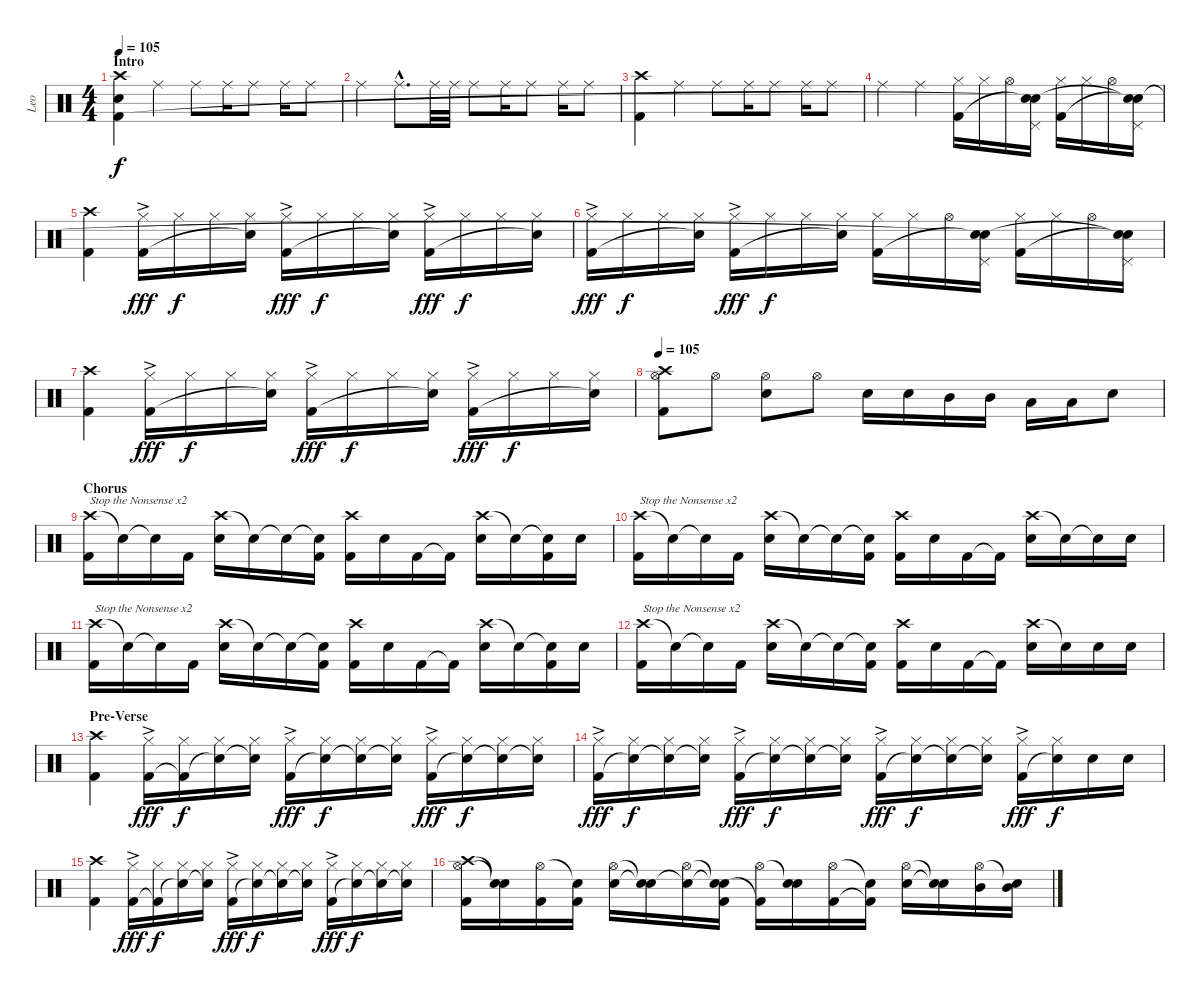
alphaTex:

\track ("Leo" "Leo") {instrument percussion}
\staff {score}
\articulation defaults
\ts (4 4)
\section ("" "Intro")
\tempo 105
\tempo 100
\tempo 105
\clef neutral
\ks c
("Crash high (hit)" "Snare (hit)" "Kick (hit) 2").4{dy f} "Ride (middle)".4 "Ride (middle)".8 "Ride (middle)".16 "Ride (middle)".8 "Ride (middle)".16 "Ride (middle)".8 |
"Ride (middle)".4 "Ride (middle)"{hac}.8{d} "Ride (middle)".32 "Ride (middle)".32 "Ride (middle)".8 "Ride (middle)".16 "Ride (middle)".8 "Ride (middle)".16 "Ride (middle)".8 |
("Crash high (hit)" "Kick (hit) 2").4 "Ride (middle)".4 "Ride (middle)".8 "Ride (middle)".16 "Ride (middle)".8 "Ride (middle)".16 "Ride (middle)".8 |
"Ride (middle)".4 "Ride (middle)".4 ("Hi-Hat (closed)" "Kick (hit) 2").16 "Hi-Hat (closed)".16 "Hi-Hat (open)".16 ("Pedal Hi-Hat (hit)" "Snare (hit)"{t} "Snare (hit)"{t}).16 ("Hi-Hat (closed)" "Kick (hit) 2").16 "Hi-Hat (closed)".16 "Hi-Hat (open)".16 ("Pedal Hi-Hat (hit)" "Snare (hit)"{t} "Snare (hit)"{t}).16 |
("Crash high (hit)" "Kick (hit) 2").4 ("Hi-Hat (closed)"{ac} "Kick (hit) 2").16{dy fff} "Hi-Hat (closed)".16{dy f} "Hi-Hat (closed)".16 ("Hi-Hat (closed)" "Snare (hit)"{t}).16 ("Hi-Hat (closed)"{ac} "Kick (hit) 2").16{dy fff} "Hi-Hat (closed)".16{dy f} "Hi-Hat (closed)".16 ("Hi-Hat (closed)" "Snare (hit)"{t}).16 ("Hi-Hat (closed)"{ac} "Kick (hit) 2").16{dy fff} "Hi-Hat (closed)".16{dy f} "Hi-Hat (closed)".16 ("Hi-Hat (closed)" "Snare (hit)"{t}).16 |
("Hi-Hat (closed)"{ac} "Kick (hit) 2").16{dy fff} "Hi-Hat (closed)".16{dy f} "Hi-Hat (closed)".16 ("Hi-Hat (closed)" "Snare (hit)"{t}).16 ("Hi-Hat (closed)"{ac} "Kick (hit) 2").16{dy fff} "Hi-Hat (closed)".16{dy f} "Hi-Hat (closed)".16 ("Hi-Hat (closed)" "Snare (hit)"{t}).16 ("Hi-Hat (closed)" "Kick (hit) 2").16 "Hi-Hat (closed)".16 "Hi-Hat (open)".16 ("Pedal Hi-Hat (hit)" "Snare (hit)"{t} "Snare (hit)"{t}).16 ("Hi-Hat (closed)" "Kick (hit) 2").16 "Hi-Hat (closed)".16 "Hi-Hat (open)".16 ("Pedal Hi-Hat (hit)" "Snare (hit)"{t} "Snare (hit)"{t}).16 |
("Crash high (hit)" "Kick (hit) 2").4 ("Hi-Hat (closed)"{ac} "Kick (hit) 2").16{dy fff} "Hi-Hat (closed)".16{dy f} "Hi-Hat (closed)".16 ("Hi-Hat (closed)" "Snare (hit)"{t}).16 ("Hi-Hat (closed)"{ac} "Kick (hit) 2").16{dy fff} "Hi-Hat (closed)".16{dy f} "Hi-Hat (closed)".16 ("Hi-Hat (closed)" "Snare (hit)"{t}).16 ("Hi-Hat (closed)"{ac} "Kick (hit) 2").16{dy fff} "Hi-Hat (closed)".16{dy f} "Hi-Hat (closed)".16 ("Hi-Hat (closed)" "Snare (hit)"{t}).16 |
\tempo 105
("Hi-Hat (open)" "Crash high (hit)" "Kick (hit) 2").8 "Hi-Hat (open)".8 ("Hi-Hat (open)" "Snare (hit) 2").8 "Hi-Hat (open)".8 "Snare (hit) 2".16 "Snare (hit) 2".16 "Mid Tom (hit)".16 "Mid Tom (hit)".16 "Low Floor Tom (hit)".16 "Low Floor Tom (hit)".16 "Snare (hit) 2".8 |
\section ("" "Chorus")
("Crash high (hit)" "Kick (hit) 2").16{txt "Stop the Nonsense x2"} "Snare (hit)"{t}.16 "Snare (hit)"{t}.16 "Kick (hit) 2".16 ("Crash high (hit)" "Snare (hit) 2").16 "Snare (hit)"{t}.16 "Snare (hit)"{t}.16 ("Snare (hit)"{t} "Kick (hit) 2").16 ("Crash high (hit)" "Kick (hit) 2").16 "Snare (hit) 2".16 "Kick (hit) 2".16 "Kick (hit) 2"{t}.16 ("Crash high (hit)" "Snare (hit) 2").16 "Snare (hit) 2"{t}.16 ("Snare (hit)"{t} "Kick (hit) 2").16 "Snare (hit) 2".16 |
("Crash high (hit)" "Kick (hit) 2").16{txt "Stop the Nonsense x2"} "Snare (hit)"{t}.16 "Snare (hit)"{t}.16 "Kick (hit) 2".16 ("Crash high (hit)" "Snare (hit) 2").16 "Snare (hit)"{t}.16 "Snare (hit)"{t}.16 ("Snare (hit)"{t} "Kick (hit) 2").16 ("Crash high (hit)" "Kick (hit) 2").16 "Snare (hit) 2".16 "Kick (hit) 2".16 "Kick (hit) 2"{t}.16 ("Crash high (hit)" "Snare (hit) 2").16 "Snare (hit) 2"{t}.16 "Snare (hit)"{t}.16 "Snare (hit) 2".16 |
("Crash high (hit)" "Kick (hit) 2").16{txt "Stop the Nonsense x2"} "Snare (hit)"{t}.16 "Snare (hit)"{t}.16 "Kick (hit) 2".16 ("Crash high (hit)" "Snare (hit) 2").16 "Snare (hit)"{t}.16 "Snare (hit)"{t}.16 ("Snare (hit)"{t} "Kick (hit) 2").16 ("Crash high (hit)" "Kick (hit) 2").16 "Snare (hit) 2".16 "Kick (hit) 2".16 "Kick (hit) 2"{t}.16 ("Crash high (hit)" "Snare (hit) 2").16 "Snare (hit) 2"{t}.16 ("Snare (hit)"{t} "Kick (hit) 2").16 "Snare (hit) 2".16 |
("Crash high (hit)" "Kick (hit) 2").16{txt "Stop the Nonsense x2"} "Snare (hit)"{t}.16 "Snare (hit)"{t}.16 "Kick (hit) 2".16 ("Crash high (hit)" "Snare (hit) 2").16 "Snare (hit)"{t}.16 "Snare (hit)"{t}.16 ("Snare (hit)"{t} "Kick (hit) 2").16 ("Crash high (hit)" "Kick (hit) 2").16 "Snare (hit) 2".16 "Kick (hit) 2".16 "Kick (hit) 2"{t}.16 ("Crash high (hit)" "Snare (hit) 2").16 "Snare (hit) 2"{t}.16 "Snare (hit) 2".16 "Snare (hit) 2".16 |
\section ("" "Pre-Verse")
("Crash high (hit)" "Kick (hit) 2").4 ("Hi-Hat (closed)"{ac} "Kick (hit) 2").16{dy fff} ("Hi-Hat (closed)" "Kick (hit) 2"{t}).16{dy f} ("Hi-Hat (closed)" "Snare (hit)"{t}).16 ("Hi-Hat (closed)" "Snare (hit)"{t}).16 ("Hi-Hat (closed)"{ac} "Kick (hit) 2").16{dy fff} ("Hi-Hat (closed)" "Snare (hit)"{t}).16{dy f} ("Hi-Hat (closed)" "Snare (hit)"{t}).16 ("Hi-Hat (closed)" "Snare (hit)"{t}).16 ("Hi-Hat (closed)"{ac} "Kick (hit) 2").16{dy fff} ("Hi-Hat (closed)" "Snare (hit)"{t}).16{dy f} ("Hi-Hat (closed)" "Snare (hit)"{t}).16 ("Hi-Hat (closed)" "Snare (hit)"{t}).16 |
("Hi-Hat (closed)"{ac} "Kick (hit) 2").16{dy fff} ("Hi-Hat (closed)" "Snare (hit)"{t}).16{dy f} ("Hi-Hat (closed)" "Snare (hit)"{t}).16 ("Hi-Hat (closed)" "Snare (hit)"{t}).16 ("Hi-Hat (closed)"{ac} "Kick (hit) 2").16{dy fff} ("Hi-Hat (closed)" "Snare (hit)"{t}).16{dy f} ("Hi-Hat (closed)" "Snare (hit)"{t}).16 ("Hi-Hat (closed)" "Snare (hit)"{t}).16 ("Hi-Hat (closed)"{ac} "Kick (hit) 2").16{dy fff} ("Hi-Hat (closed)" "Snare (hit)"{t}).16{dy f} ("Hi-Hat (closed)" "Snare (hit)"{t}).16 ("Hi-Hat (closed)" "Snare (hit)"{t}).16 ("Hi-Hat (closed)"{ac} "Kick (hit) 2").16{dy fff} ("Hi-Hat (closed)" "Snare (hit)"{t}).16{dy f} "Snare (hit) 2".16 "Snare (hit) 2".16 |
("Crash high (hit)" "Kick (hit) 2").4 ("Hi-Hat (closed)"{ac} "Kick (hit) 2").16{dy fff} ("Hi-Hat (closed)" "Kick (hit) 2"{t}).16{dy f} ("Hi-Hat (closed)" "Snare (hit)"{t}).16 ("Hi-Hat (closed)" "Snare (hit)"{t}).16 ("Hi-Hat (closed)"{ac} "Kick (hit) 2").16{dy fff} ("Hi-Hat (closed)" "Snare (hit)"{t}).16{dy f} ("Hi-Hat (closed)" "Snare (hit)"{t}).16 ("Hi-Hat (closed)" "Snare (hit)"{t}).16 ("Hi-Hat (closed)"{ac} "Kick (hit) 2").16{dy fff} ("Hi-Hat (closed)" "Snare (hit)"{t}).16{dy f} ("Hi-Hat (closed)" "Snare (hit)"{t}).16 ("Hi-Hat (closed)" "Snare (hit)"{t}).16 |
("Hi-Hat (open)" "Crash high (hit)" "Kick (hit) 2").16 ("Snare (hit)"{t} "Snare (hit)"{t}).16 ("Hi-Hat (open)" "Kick (hit) 2").16 ("Snare (hit)"{t} "Kick (hit) 2").16 ("Hi-Hat (open)" "Snare (hit) 2").16 ("Snare (hit)"{t} "Snare (hit)"{t}).16 ("Hi-Hat (open)" "Snare (hit)"{t}).16 ("Snare (hit)"{t} "Snare (hit)"{t} "Kick (hit) 2").16 ("Hi-Hat (open)" "Kick (hit) 2"{t}).16 ("Snare (hit)"{t} "Snare (hit) 2").16 ("Hi-Hat (open)" "Kick (hit) 2").16 ("Snare (hit)"{t} "Kick (hit) 2"{t}).16 ("Hi-Hat (open)" "Snare (hit) 2").16 ("Snare (hit)"{t} "Snare (hit) 2"{t}).16 ("Hi-Hat (open)" "Mid Tom (hit)").16 ("Snare (hit)"{t} "Mid Tom (hit)").16
